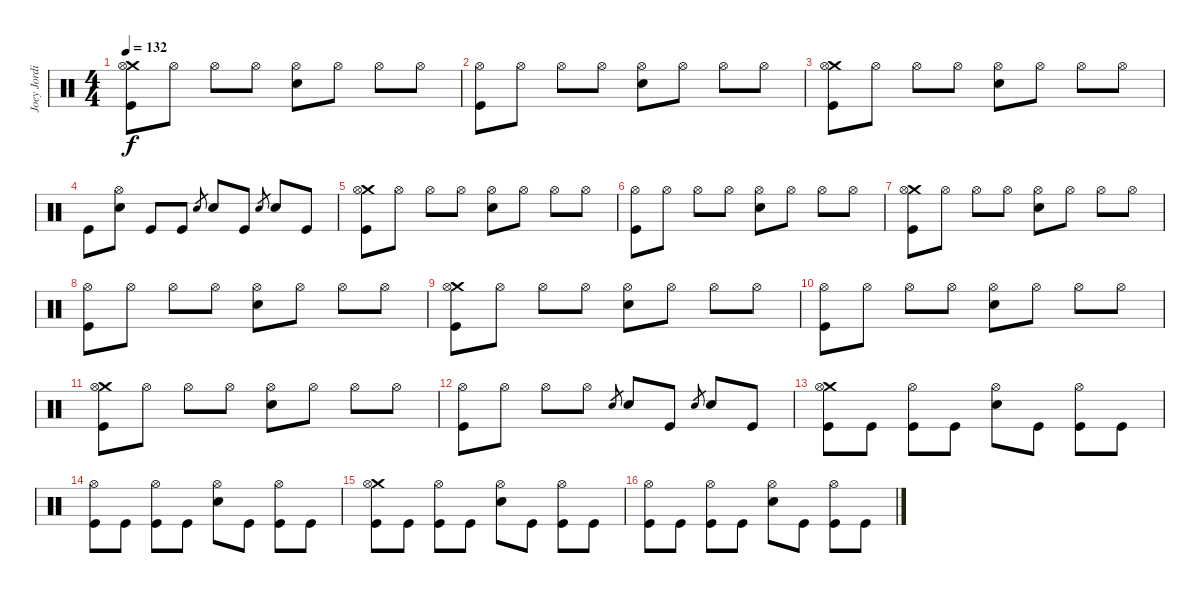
\track ("Joey Jordison" "Joey Jordi") {instrument percussion}
\staff {score}
\articulation defaults
\ts (4 4)
\tempo 132
\clef neutral
\ks c
("Kick (hit)" "Crash medium (hit)" "Hi-Hat (open)").8{dy f} "Hi-Hat (open)".8 "Hi-Hat (open)".8 "Hi-Hat (open)".8 ("Snare (hit) 2" "Hi-Hat (open)").8 "Hi-Hat (open)".8 "Hi-Hat (open)".8 "Hi-Hat (open)".8 |
("Kick (hit)" "Hi-Hat (open)").8 "Hi-Hat (open)".8 "Hi-Hat (open)".8 "Hi-Hat (open)".8 ("Snare (hit) 2" "Hi-Hat (open)").8 "Hi-Hat (open)".8 "Hi-Hat (open)".8 "Hi-Hat (open)".8 |
("Kick (hit)" "Crash medium (hit)" "Hi-Hat (open)").8 "Hi-Hat (open)".8 "Hi-Hat (open)".8 "Hi-Hat (open)".8 ("Snare (hit) 2" "Hi-Hat (open)").8 "Hi-Hat (open)".8 "Hi-Hat (open)".8 "Hi-Hat (open)".8 |
"Kick (hit)".8 ("Hi-Hat (open)" "Snare (hit) 2").8 "Kick (hit)".8 "Kick (hit)".8 "Snare (hit)".8{gr} "Snare (hit) 2".8 "Kick (hit)".8 "Snare (hit)".8{gr} "Snare (hit) 2".8 "Kick (hit)".8 |
("Kick (hit)" "Crash medium (hit)" "Hi-Hat (open)").8 "Hi-Hat (open)".8 "Hi-Hat (open)".8 "Hi-Hat (open)".8 ("Snare (hit) 2" "Hi-Hat (open)").8 "Hi-Hat (open)".8 "Hi-Hat (open)".8 "Hi-Hat (open)".8 |
("Kick (hit)" "Hi-Hat (open)").8 "Hi-Hat (open)".8 "Hi-Hat (open)".8 "Hi-Hat (open)".8 ("Snare (hit) 2" "Hi-Hat (open)").8 "Hi-Hat (open)".8 "Hi-Hat (open)".8 "Hi-Hat (open)".8 |
("Kick (hit)" "Crash medium (hit)" "Hi-Hat (open)").8 "Hi-Hat (open)".8 "Hi-Hat (open)".8 "Hi-Hat (open)".8 ("Snare (hit) 2" "Hi-Hat (open)").8 "Hi-Hat (open)".8 "Hi-Hat (open)".8 "Hi-Hat (open)".8 |
("Kick (hit)" "Hi-Hat (open)").8 "Hi-Hat (open)".8 "Hi-Hat (open)".8 "Hi-Hat (open)".8 ("Snare (hit) 2" "Hi-Hat (open)").8 "Hi-Hat (open)".8 "Hi-Hat (open)".8 "Hi-Hat (open)".8 |
("Kick (hit)" "Crash medium (hit)" "Hi-Hat (open)").8 "Hi-Hat (open)".8 "Hi-Hat (open)".8 "Hi-Hat (open)".8 ("Snare (hit) 2" "Hi-Hat (open)").8 "Hi-Hat (open)".8 "Hi-Hat (open)".8 "Hi-Hat (open)".8 |
("Kick (hit)" "Hi-Hat (open)").8 "Hi-Hat (open)".8 "Hi-Hat (open)".8 "Hi-Hat (open)".8 ("Snare (hit) 2" "Hi-Hat (open)").8 "Hi-Hat (open)".8 "Hi-Hat (open)".8 "Hi-Hat (open)".8 |
("Kick (hit)" "Crash medium (hit)" "Hi-Hat (open)").8 "Hi-Hat (open)".8 "Hi-Hat (open)".8 "Hi-Hat (open)".8 ("Snare (hit) 2" "Hi-Hat (open)").8 "Hi-Hat (open)".8 "Hi-Hat (open)".8 "Hi-Hat (open)".8 |
("Kick (hit)" "Hi-Hat (open)").8 "Hi-Hat (open)".8 "Hi-Hat (open)".8 "Hi-Hat (open)".8 "Snare (hit)".8{gr} "Snare (hit) 2".8 "Kick (hit)".8 "Snare (hit)".8{gr} "Snare (hit) 2".8 "Kick (hit)".8 |
("Kick (hit)" "Crash medium (hit)" "Hi-Hat (open)").8 "Kick (hit)".8 ("Kick (hit)" "Hi-Hat (open)").8 "Kick (hit)".8 ("Snare (hit) 2" "Hi-Hat (open)").8 "Kick (hit)".8 ("Kick (hit)" "Hi-Hat (open)").8 "Kick (hit)".8 |
("Kick (hit)" "Hi-Hat (open)").8 "Kick (hit)".8 ("Kick (hit)" "Hi-Hat (open)").8 "Kick (hit)".8 ("Snare (hit) 2" "Hi-Hat (open)").8 "Kick (hit)".8 ("Kick (hit)" "Hi-Hat (open)").8 "Kick (hit)".8 |
("Kick (hit)" "Crash medium (hit)" "Hi-Hat (open)").8 "Kick (hit)".8 ("Kick (hit)" "Hi-Hat (open)").8 "Kick (hit)".8 ("Snare (hit) 2" "Hi-Hat (open)").8 "Kick (hit)".8 ("Kick (hit)" "Hi-Hat (open)").8 "Kick (hit)".8 |
("Kick (hit)" "Hi-Hat (open)").8 "Kick (hit)".8 ("Kick (hit)" "Hi-Hat (open)").8 "Kick (hit)".8 ("Snare (hit) 2" "Hi-Hat (open)").8 "Kick (hit)".8 ("Kick (hit)" "Hi-Hat (open)").8 "Kick (hit)".8
